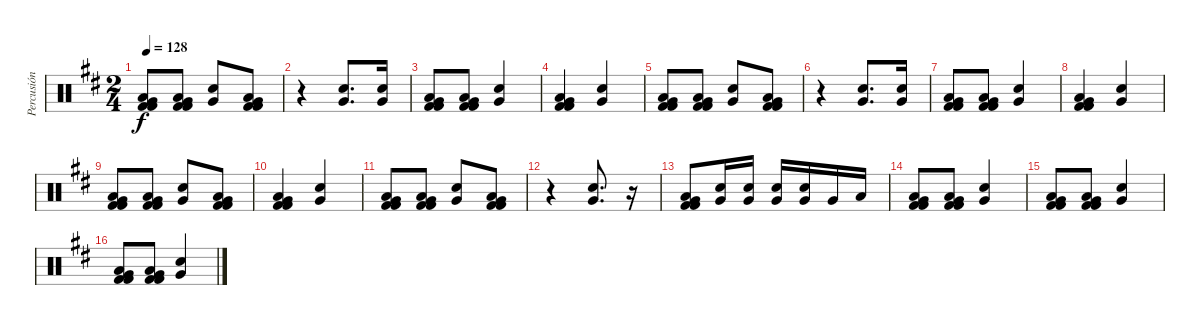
\track ("Percusión" "Percusión") {instrument percussion}
\staff {score}
\articulation defaults
\ts (2 4)
\tempo 128
\clef neutral
\ks d
("Kick (hit) 2" "Low Floor Tom (hit)" "Kick (hit) 2" "Very Low Tom (hit)").8{dy f} ("Kick (hit) 2" "Low Floor Tom (hit)" "Kick (hit) 2" "Very Low Tom (hit)").8 ("Electric Snare (hit)" "Very Low Tom (hit)").8 ("Kick (hit) 2" "Low Floor Tom (hit)" "Kick (hit) 2" "Very Low Tom (hit)").8 |
r.4 ("Electric Snare (hit)" "Very Low Tom (hit)").8{d} ("Electric Snare (hit)" "Very Low Tom (hit)").16 |
("Kick (hit) 2" "Low Floor Tom (hit)" "Kick (hit) 2" "Very Low Tom (hit)").8 ("Kick (hit) 2" "Low Floor Tom (hit)" "Kick (hit) 2" "Very Low Tom (hit)").8 ("Electric Snare (hit)" "Very Low Tom (hit)").4 |
("Kick (hit) 2" "Low Floor Tom (hit)" "Kick (hit) 2" "Very Low Tom (hit)").4 ("Electric Snare (hit)" "Very Low Tom (hit)").4 |
("Kick (hit) 2" "Low Floor Tom (hit)" "Kick (hit) 2" "Very Low Tom (hit)").8 ("Kick (hit) 2" "Low Floor Tom (hit)" "Kick (hit) 2" "Very Low Tom (hit)").8 ("Electric Snare (hit)" "Very Low Tom (hit)").8 ("Kick (hit) 2" "Low Floor Tom (hit)" "Kick (hit) 2" "Very Low Tom (hit)").8 |
r.4 ("Electric Snare (hit)" "Very Low Tom (hit)").8{d} ("Electric Snare (hit)" "Very Low Tom (hit)").16 |
("Kick (hit) 2" "Low Floor Tom (hit)" "Kick (hit) 2" "Very Low Tom (hit)").8 ("Kick (hit) 2" "Low Floor Tom (hit)" "Kick (hit) 2" "Very Low Tom (hit)").8 ("Electric Snare (hit)" "Very Low Tom (hit)").4 |
("Kick (hit) 2" "Low Floor Tom (hit)" "Kick (hit) 2" "Very Low Tom (hit)").4 ("Electric Snare (hit)" "Very Low Tom (hit)").4 |
("Kick (hit) 2" "Low Floor Tom (hit)" "Kick (hit) 2" "Very Low Tom (hit)").8 ("Kick (hit) 2" "Low Floor Tom (hit)" "Kick (hit) 2" "Very Low Tom (hit)").8 ("Electric Snare (hit)" "Very Low Tom (hit)").8 ("Kick (hit) 2" "Low Floor Tom (hit)" "Kick (hit) 2" "Very Low Tom (hit)").8 |
("Kick (hit) 2" "Low Floor Tom (hit)" "Kick (hit) 2" "Very Low Tom (hit)").4 ("Electric Snare (hit)" "Very Low Tom (hit)").4 |
("Kick (hit) 2" "Low Floor Tom (hit)" "Kick (hit) 2" "Very Low Tom (hit)").8 ("Kick (hit) 2" "Low Floor Tom (hit)" "Kick (hit) 2" "Very Low Tom (hit)").8 ("Electric Snare (hit)" "Very Low Tom (hit)").8 ("Kick (hit) 2" "Low Floor Tom (hit)" "Kick (hit) 2" "Very Low Tom (hit)").8 |
r.4 ("Electric Snare (hit)" "Very Low Tom (hit)").8{d} r.16 |
("Kick (hit) 2" "Low Floor Tom (hit)" "Kick (hit) 2" "Very Low Tom (hit)").8 ("Electric Snare (hit)" "Very Low Tom (hit)").16 ("Very Low Tom (hit)" "Snare (hit) 2").16 ("Electric Snare (hit)" "Very Low Tom (hit)").16 ("Very Low Tom (hit)" "Snare (hit) 2").16 "Very Low Tom (hit)".16 "Low Floor Tom (hit)".16 |
("Kick (hit) 2" "Low Floor Tom (hit)" "Kick (hit) 2" "Very Low Tom (hit)").8 ("Kick (hit) 2" "Low Floor Tom (hit)" "Kick (hit) 2" "Very Low Tom (hit)").8 ("Electric Snare (hit)" "Very Low Tom (hit)").4 |
("Kick (hit) 2" "Low Floor Tom (hit)" "Kick (hit) 2" "Very Low Tom (hit)").8 ("Kick (hit) 2" "Low Floor Tom (hit)" "Kick (hit) 2" "Very Low Tom (hit)").8 ("Electric Snare (hit)" "Very Low Tom (hit)").4 |
("Kick (hit) 2" "Low Floor Tom (hit)" "Kick (hit) 2" "Very Low Tom (hit)").8 ("Kick (hit) 2" "Low Floor Tom (hit)" "Kick (hit) 2" "Very Low Tom (hit)").8 ("Electric Snare (hit)" "Very Low Tom (hit)").4
